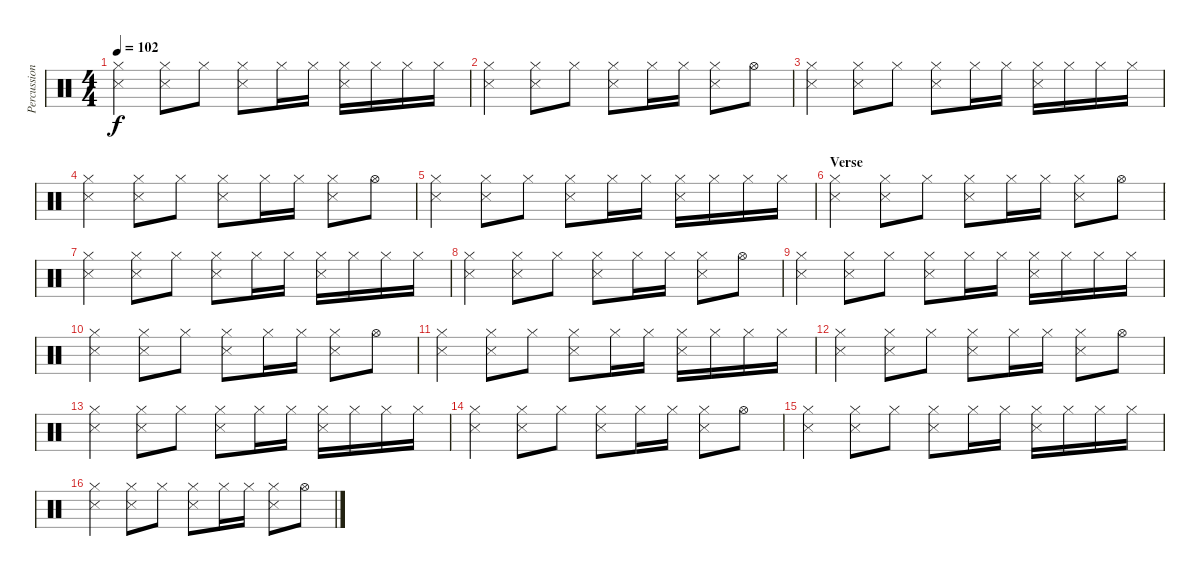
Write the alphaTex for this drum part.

\track ("Percussion" "Percussion") {instrument percussion}
\staff {score}
\articulation defaults
\ts (4 4)
\tempo 102
\clef neutral
\ks c
("Snare (side stick) 3" "Hi-Hat (closed)").4{dy f} ("Snare (side stick) 3" "Hi-Hat (closed)").8 "Hi-Hat (closed)".8 ("Snare (side stick) 3" "Hi-Hat (closed)").8 "Hi-Hat (closed)".16 "Hi-Hat (closed)".16 ("Snare (side stick) 3" "Hi-Hat (closed)").16 "Hi-Hat (closed)".16 "Hi-Hat (closed)".16 "Hi-Hat (closed)".16 |
("Snare (side stick) 3" "Hi-Hat (closed)").4 ("Snare (side stick) 3" "Hi-Hat (closed)").8 "Hi-Hat (closed)".8 ("Snare (side stick) 3" "Hi-Hat (closed)").8 "Hi-Hat (closed)".16 "Hi-Hat (closed)".16 ("Snare (side stick) 3" "Hi-Hat (closed)").8 "Hi-Hat (open)".8 |
("Snare (side stick) 3" "Hi-Hat (closed)").4 ("Snare (side stick) 3" "Hi-Hat (closed)").8 "Hi-Hat (closed)".8 ("Snare (side stick) 3" "Hi-Hat (closed)").8 "Hi-Hat (closed)".16 "Hi-Hat (closed)".16 ("Snare (side stick) 3" "Hi-Hat (closed)").16 "Hi-Hat (closed)".16 "Hi-Hat (closed)".16 "Hi-Hat (closed)".16 |
("Snare (side stick) 3" "Hi-Hat (closed)").4 ("Snare (side stick) 3" "Hi-Hat (closed)").8 "Hi-Hat (closed)".8 ("Snare (side stick) 3" "Hi-Hat (closed)").8 "Hi-Hat (closed)".16 "Hi-Hat (closed)".16 ("Snare (side stick) 3" "Hi-Hat (closed)").8 "Hi-Hat (open)".8 |
("Snare (side stick) 3" "Hi-Hat (closed)").4 ("Snare (side stick) 3" "Hi-Hat (closed)").8 "Hi-Hat (closed)".8 ("Snare (side stick) 3" "Hi-Hat (closed)").8 "Hi-Hat (closed)".16 "Hi-Hat (closed)".16 ("Snare (side stick) 3" "Hi-Hat (closed)").16 "Hi-Hat (closed)".16 "Hi-Hat (closed)".16 "Hi-Hat (closed)".16 |
\section ("" "Verse")
("Snare (side stick) 3" "Hi-Hat (closed)").4 ("Snare (side stick) 3" "Hi-Hat (closed)").8 "Hi-Hat (closed)".8 ("Snare (side stick) 3" "Hi-Hat (closed)").8 "Hi-Hat (closed)".16 "Hi-Hat (closed)".16 ("Snare (side stick) 3" "Hi-Hat (closed)").8 "Hi-Hat (open)".8 |
("Snare (side stick) 3" "Hi-Hat (closed)").4 ("Snare (side stick) 3" "Hi-Hat (closed)").8 "Hi-Hat (closed)".8 ("Snare (side stick) 3" "Hi-Hat (closed)").8 "Hi-Hat (closed)".16 "Hi-Hat (closed)".16 ("Snare (side stick) 3" "Hi-Hat (closed)").16 "Hi-Hat (closed)".16 "Hi-Hat (closed)".16 "Hi-Hat (closed)".16 |
("Snare (side stick) 3" "Hi-Hat (closed)").4 ("Snare (side stick) 3" "Hi-Hat (closed)").8 "Hi-Hat (closed)".8 ("Snare (side stick) 3" "Hi-Hat (closed)").8 "Hi-Hat (closed)".16 "Hi-Hat (closed)".16 ("Snare (side stick) 3" "Hi-Hat (closed)").8 "Hi-Hat (open)".8 |
("Snare (side stick) 3" "Hi-Hat (closed)").4 ("Snare (side stick) 3" "Hi-Hat (closed)").8 "Hi-Hat (closed)".8 ("Snare (side stick) 3" "Hi-Hat (closed)").8 "Hi-Hat (closed)".16 "Hi-Hat (closed)".16 ("Snare (side stick) 3" "Hi-Hat (closed)").16 "Hi-Hat (closed)".16 "Hi-Hat (closed)".16 "Hi-Hat (closed)".16 |
("Snare (side stick) 3" "Hi-Hat (closed)").4 ("Snare (side stick) 3" "Hi-Hat (closed)").8 "Hi-Hat (closed)".8 ("Snare (side stick) 3" "Hi-Hat (closed)").8 "Hi-Hat (closed)".16 "Hi-Hat (closed)".16 ("Snare (side stick) 3" "Hi-Hat (closed)").8 "Hi-Hat (open)".8 |
("Snare (side stick) 3" "Hi-Hat (closed)").4 ("Snare (side stick) 3" "Hi-Hat (closed)").8 "Hi-Hat (closed)".8 ("Snare (side stick) 3" "Hi-Hat (closed)").8 "Hi-Hat (closed)".16 "Hi-Hat (closed)".16 ("Snare (side stick) 3" "Hi-Hat (closed)").16 "Hi-Hat (closed)".16 "Hi-Hat (closed)".16 "Hi-Hat (closed)".16 |
("Snare (side stick) 3" "Hi-Hat (closed)").4 ("Snare (side stick) 3" "Hi-Hat (closed)").8 "Hi-Hat (closed)".8 ("Snare (side stick) 3" "Hi-Hat (closed)").8 "Hi-Hat (closed)".16 "Hi-Hat (closed)".16 ("Snare (side stick) 3" "Hi-Hat (closed)").8 "Hi-Hat (open)".8 |
("Snare (side stick) 3" "Hi-Hat (closed)").4 ("Snare (side stick) 3" "Hi-Hat (closed)").8 "Hi-Hat (closed)".8 ("Snare (side stick) 3" "Hi-Hat (closed)").8 "Hi-Hat (closed)".16 "Hi-Hat (closed)".16 ("Snare (side stick) 3" "Hi-Hat (closed)").16 "Hi-Hat (closed)".16 "Hi-Hat (closed)".16 "Hi-Hat (closed)".16 |
("Snare (side stick) 3" "Hi-Hat (closed)").4 ("Snare (side stick) 3" "Hi-Hat (closed)").8 "Hi-Hat (closed)".8 ("Snare (side stick) 3" "Hi-Hat (closed)").8 "Hi-Hat (closed)".16 "Hi-Hat (closed)".16 ("Snare (side stick) 3" "Hi-Hat (closed)").8 "Hi-Hat (open)".8 |
("Snare (side stick) 3" "Hi-Hat (closed)").4 ("Snare (side stick) 3" "Hi-Hat (closed)").8 "Hi-Hat (closed)".8 ("Snare (side stick) 3" "Hi-Hat (closed)").8 "Hi-Hat (closed)".16 "Hi-Hat (closed)".16 ("Snare (side stick) 3" "Hi-Hat (closed)").16 "Hi-Hat (closed)".16 "Hi-Hat (closed)".16 "Hi-Hat (closed)".16 |
("Snare (side stick) 3" "Hi-Hat (closed)").4 ("Snare (side stick) 3" "Hi-Hat (closed)").8 "Hi-Hat (closed)".8 ("Snare (side stick) 3" "Hi-Hat (closed)").8 "Hi-Hat (closed)".16 "Hi-Hat (closed)".16 ("Snare (side stick) 3" "Hi-Hat (closed)").8 "Hi-Hat (open)".8
